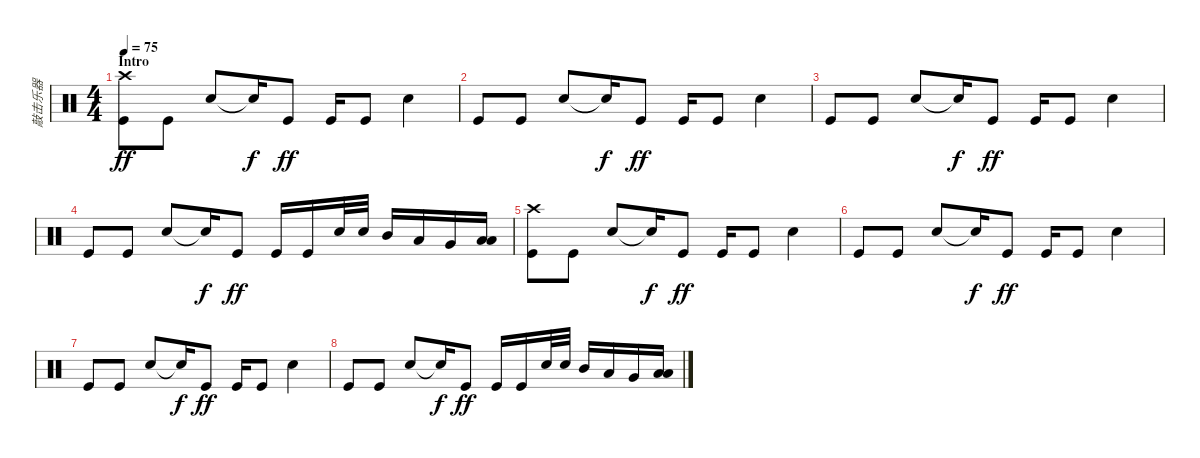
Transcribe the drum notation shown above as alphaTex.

\track ("敲击乐器" "敲击乐器") {instrument percussion}
\staff {score}
\articulation defaults
\ts (4 4)
\section ("" "Intro")
\tempo 75
\clef neutral
\ks c
("Kick (hit)" "Crash high (hit)").8{dy ff} "Kick (hit)".8 "Electric Snare (hit)".8 "Snare (hit)"{t}.16{dy f} "Kick (hit)".8{dy ff} "Kick (hit)".16 "Kick (hit)".8 "Electric Snare (hit)".4 |
"Kick (hit)".8 "Kick (hit)".8 "Electric Snare (hit)".8 "Snare (hit)"{t}.16{dy f} "Kick (hit)".8{dy ff} "Kick (hit)".16 "Kick (hit)".8 "Electric Snare (hit)".4 |
"Kick (hit)".8 "Kick (hit)".8 "Electric Snare (hit)".8 "Snare (hit)"{t}.16{dy f} "Kick (hit)".8{dy ff} "Kick (hit)".16 "Kick (hit)".8 "Electric Snare (hit)".4 |
"Kick (hit)".8 "Kick (hit)".8 "Electric Snare (hit)".8 "Snare (hit)"{t}.16{dy f} "Kick (hit)".8{dy ff} "Kick (hit)".16 "Kick (hit)".16 "Electric Snare (hit)".32 "Electric Snare (hit)".32 "Mid Tom (hit)".16 "Low Tom (hit)".16 "Very Low Tom (hit)".16 ("Low Floor Tom (hit)" "Low Floor Tom (hit)").16 |
("Kick (hit)" "Crash high (hit)").8 "Kick (hit)".8 "Electric Snare (hit)".8 "Snare (hit)"{t}.16{dy f} "Kick (hit)".8{dy ff} "Kick (hit)".16 "Kick (hit)".8 "Electric Snare (hit)".4 |
"Kick (hit)".8 "Kick (hit)".8 "Electric Snare (hit)".8 "Snare (hit)"{t}.16{dy f} "Kick (hit)".8{dy ff} "Kick (hit)".16 "Kick (hit)".8 "Electric Snare (hit)".4 |
"Kick (hit)".8{volume 15} "Kick (hit)".8 "Electric Snare (hit)".8{volume 14} "Snare (hit)"{t}.16{dy f} "Kick (hit)".8{dy ff} "Kick (hit)".16{volume 12} "Kick (hit)".8 "Electric Snare (hit)".4{volume 11} |
"Kick (hit)".8 "Kick (hit)".8{volume 9} "Electric Snare (hit)".8 "Snare (hit)"{t}.16{dy f} "Kick (hit)".8{dy ff volume 8} "Kick (hit)".16 "Kick (hit)".16 "Electric Snare (hit)".32{volume 6} "Electric Snare (hit)".32 "Mid Tom (hit)".16 "Low Tom (hit)".16{volume 4} "Very Low Tom (hit)".16 ("Low Floor Tom (hit)" "Low Floor Tom (hit)").16{volume 1}
